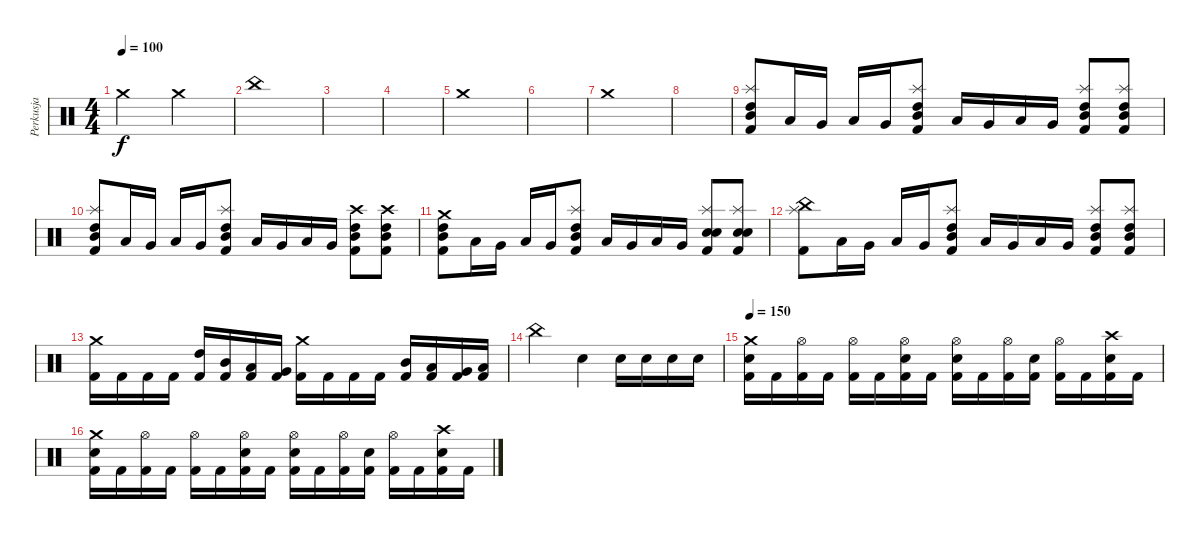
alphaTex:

\track ("Perkusja" "Perkusja") {instrument percussion}
\staff {score}
\articulation defaults
\ts (4 4)
\tempo 100
\clef neutral
\ks c "Crash medium (hit)".2{dy f} "Crash medium (hit)".2
|
"China (hit)".1 |
|
|
"Crash medium (hit)".1 |
|
"Crash medium (hit)".1 |
|
("Kick (hit) 2" "Splash (hit)" "High Tom (hit)" "Mid Tom (hit)").8 "Low Tom (hit)".16 "Very Low Tom (hit)".16 "Low Tom (hit)".16 "Very Low Tom (hit)".16 ("Kick (hit) 2" "Splash (hit)" "High Tom (hit)" "Mid Tom (hit)").8 "Low Tom (hit)".16 "Very Low Tom (hit)".16 "Low Tom (hit)".16 "Very Low Tom (hit)".16 ("Kick (hit) 2" "Splash (hit)" "High Tom (hit)" "Mid Tom (hit)").8 ("Kick (hit) 2" "Splash (hit)" "High Tom (hit)" "Mid Tom (hit)").8 |
("Kick (hit) 2" "Splash (hit)" "High Tom (hit)" "Mid Tom (hit)").8 "Low Tom (hit)".16 "Very Low Tom (hit)".16 "Low Tom (hit)".16 "Very Low Tom (hit)".16 ("Kick (hit) 2" "Splash (hit)" "High Tom (hit)" "Mid Tom (hit)").8 "Low Tom (hit)".16 "Very Low Tom (hit)".16 "Low Tom (hit)".16 "Very Low Tom (hit)".16 ("Kick (hit) 2" "Crash high (hit)" "High Tom (hit)" "Mid Tom (hit)").8 ("Kick (hit) 2" "Crash high (hit)" "High Tom (hit)" "Mid Tom (hit)").8 |
("Kick (hit) 2" "Crash medium (hit)" "High Tom (hit)" "Mid Tom (hit)").8 "Low Tom (hit)".16 "Very Low Tom (hit)".16 "Low Tom (hit)".16 "Very Low Tom (hit)".16 ("Kick (hit) 2" "Splash (hit)" "High Tom (hit)" "Mid Tom (hit)").8 "Low Tom (hit)".16 "Very Low Tom (hit)".16 "Low Tom (hit)".16 "Very Low Tom (hit)".16 ("Kick (hit) 2" "Splash (hit)" "Electric Snare (hit)" "Snare (hit) 2").8 ("Kick (hit) 2" "Splash (hit)" "Electric Snare (hit)" "Snare (hit) 2").8 |
("China (hit)" "Splash (hit)" "Kick (hit) 2").8 "Low Tom (hit)".16 "Very Low Tom (hit)".16 "Low Tom (hit)".16 "Very Low Tom (hit)".16 ("Kick (hit) 2" "Splash (hit)" "High Tom (hit)" "Mid Tom (hit)").8 "Low Tom (hit)".16 "Very Low Tom (hit)".16 "Low Tom (hit)".16 "Very Low Tom (hit)".16 ("Kick (hit) 2" "Splash (hit)" "High Tom (hit)" "Mid Tom (hit)").8 ("Kick (hit) 2" "Splash (hit)" "High Tom (hit)" "Mid Tom (hit)").8 |
("Crash medium (hit)" "Kick (hit) 2").16 "Kick (hit) 2".16 "Kick (hit) 2".16 "Kick (hit) 2".16 ("High Tom (hit)" "Kick (hit) 2").16 ("Mid Tom (hit)" "Kick (hit) 2").16 ("Low Tom (hit)" "Kick (hit) 2").16 ("Very Low Tom (hit)" "Kick (hit) 2").16 ("Crash medium (hit)" "Kick (hit) 2").16 "Kick (hit) 2".16 "Kick (hit) 2".16 "Kick (hit) 2".16 ("Mid Tom (hit)" "Kick (hit) 2").16 ("Low Tom (hit)" "Kick (hit) 2").16 ("Very Low Tom (hit)" "Kick (hit) 2").16 ("Low Floor Tom (hit)" "Kick (hit) 2").16 |
"China (hit)".2 "Electric Snare (hit)".4 "Electric Snare (hit)".16 "Electric Snare (hit)".16 "Electric Snare (hit)".16 "Electric Snare (hit)".16 |
\tempo 150
("Crash medium (hit)" "Electric Snare (hit)" "Kick (hit) 2").16 "Kick (hit) 2".16 ("Hi-Hat (open)" "Kick (hit) 2").16 "Kick (hit) 2".16 ("Hi-Hat (open)" "Kick (hit) 2").16 "Kick (hit) 2".16 ("Hi-Hat (open)" "Electric Snare (hit)" "Kick (hit) 2").16 "Kick (hit) 2".16 ("Hi-Hat (open)" "Electric Snare (hit)" "Kick (hit) 2").16 "Kick (hit) 2".16 ("Hi-Hat (open)" "Kick (hit) 2").16 ("Electric Snare (hit)" "Kick (hit) 2").16 ("Hi-Hat (open)" "Kick (hit) 2").16 "Kick (hit) 2".16 ("Crash high (hit)" "Electric Snare (hit)" "Kick (hit) 2").16 "Kick (hit) 2".16 |
("Crash medium (hit)" "Electric Snare (hit)" "Kick (hit) 2").16 "Kick (hit) 2".16 ("Hi-Hat (open)" "Kick (hit) 2").16 "Kick (hit) 2".16 ("Hi-Hat (open)" "Kick (hit) 2").16 "Kick (hit) 2".16 ("Hi-Hat (open)" "Electric Snare (hit)" "Kick (hit) 2").16 "Kick (hit) 2".16 ("Hi-Hat (open)" "Electric Snare (hit)" "Kick (hit) 2").16 "Kick (hit) 2".16 ("Hi-Hat (open)" "Kick (hit) 2").16 ("Electric Snare (hit)" "Kick (hit) 2").16 ("Hi-Hat (open)" "Kick (hit) 2").16 "Kick (hit) 2".16 ("Crash high (hit)" "Electric Snare (hit)" "Kick (hit) 2").16 "Kick (hit) 2".16
